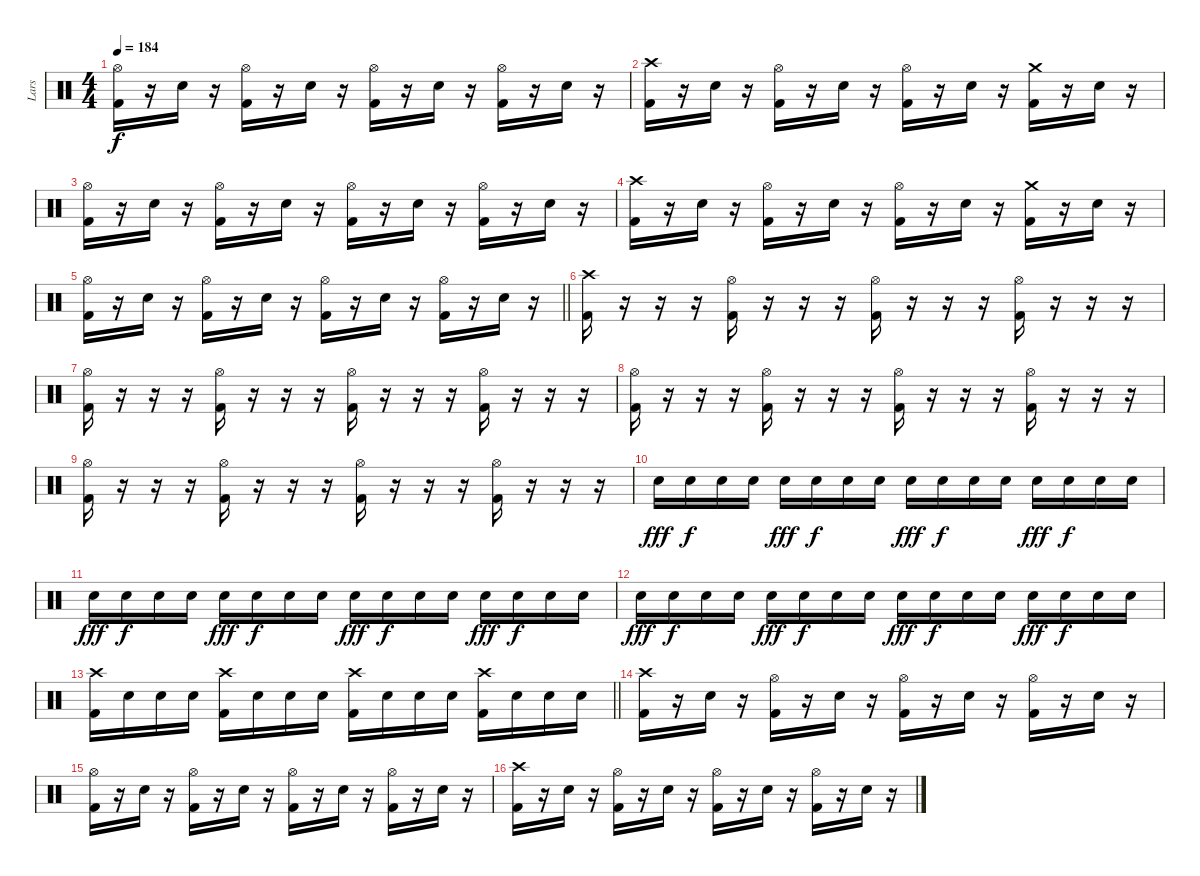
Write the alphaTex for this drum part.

\track ("Lars" "Lars") {instrument percussion}
\staff {score}
\articulation defaults
\ts (4 4)
\tempo 184
\clef neutral
\ks c
("Hi-Hat (open)" "Kick (hit) 2").16{dy f} r.16 "Electric Snare (hit)".16 r.16 ("Hi-Hat (open)" "Kick (hit) 2").16 r.16 "Electric Snare (hit)".16 r.16 ("Hi-Hat (open)" "Kick (hit) 2").16 r.16 "Electric Snare (hit)".16 r.16 ("Hi-Hat (open)" "Kick (hit) 2").16 r.16 "Electric Snare (hit)".16 r.16 |
("Crash high (hit)" "Kick (hit) 2").16 r.16 "Electric Snare (hit)".16 r.16 ("Hi-Hat (open)" "Kick (hit) 2").16 r.16 "Electric Snare (hit)".16 r.16 ("Hi-Hat (open)" "Kick (hit) 2").16 r.16 "Electric Snare (hit)".16 r.16 ("Crash medium (hit)" "Kick (hit) 2").16 r.16 "Electric Snare (hit)".16 r.16 |
("Hi-Hat (open)" "Kick (hit) 2").16 r.16 "Electric Snare (hit)".16 r.16 ("Hi-Hat (open)" "Kick (hit) 2").16 r.16 "Electric Snare (hit)".16 r.16 ("Hi-Hat (open)" "Kick (hit) 2").16 r.16 "Electric Snare (hit)".16 r.16 ("Hi-Hat (open)" "Kick (hit) 2").16 r.16 "Electric Snare (hit)".16 r.16 |
("Crash high (hit)" "Kick (hit) 2").16 r.16 "Electric Snare (hit)".16 r.16 ("Hi-Hat (open)" "Kick (hit) 2").16 r.16 "Electric Snare (hit)".16 r.16 ("Hi-Hat (open)" "Kick (hit) 2").16 r.16 "Electric Snare (hit)".16 r.16 ("Crash medium (hit)" "Kick (hit) 2").16 r.16 "Electric Snare (hit)".16 r.16 |
\barLineRight lightlight
("Hi-Hat (open)" "Kick (hit) 2").16 r.16 "Electric Snare (hit)".16 r.16 ("Hi-Hat (open)" "Kick (hit) 2").16 r.16 "Electric Snare (hit)".16 r.16 ("Hi-Hat (open)" "Kick (hit) 2").16 r.16 "Electric Snare (hit)".16 r.16 ("Hi-Hat (open)" "Kick (hit) 2").16 r.16 "Electric Snare (hit)".16 r.16 |
("Crash high (hit)" "Kick (hit) 2").16 r.16 r.16 r.16 ("Hi-Hat (open)" "Kick (hit) 2").16 r.16 r.16 r.16 ("Hi-Hat (open)" "Kick (hit) 2").16 r.16 r.16 r.16 ("Hi-Hat (open)" "Kick (hit) 2").16 r.16 r.16 r.16 |
("Hi-Hat (open)" "Kick (hit) 2").16 r.16 r.16 r.16 ("Hi-Hat (open)" "Kick (hit) 2").16 r.16 r.16 r.16 ("Hi-Hat (open)" "Kick (hit) 2").16 r.16 r.16 r.16 ("Hi-Hat (open)" "Kick (hit) 2").16 r.16 r.16 r.16 |
("Hi-Hat (open)" "Kick (hit) 2").16 r.16 r.16 r.16 ("Hi-Hat (open)" "Kick (hit) 2").16 r.16 r.16 r.16 ("Hi-Hat (open)" "Kick (hit) 2").16 r.16 r.16 r.16 ("Hi-Hat (open)" "Kick (hit) 2").16 r.16 r.16 r.16 |
("Hi-Hat (open)" "Kick (hit) 2").16 r.16 r.16 r.16 ("Hi-Hat (open)" "Kick (hit) 2").16 r.16 r.16 r.16 ("Hi-Hat (open)" "Kick (hit) 2").16 r.16 r.16 r.16 ("Hi-Hat (open)" "Kick (hit) 2").16 r.16 r.16 r.16 |
"Electric Snare (hit)".16{dy fff} "Electric Snare (hit)".16{dy f} "Electric Snare (hit)".16 "Electric Snare (hit)".16 "Electric Snare (hit)".16{dy fff} "Electric Snare (hit)".16{dy f} "Electric Snare (hit)".16 "Electric Snare (hit)".16 "Electric Snare (hit)".16{dy fff} "Electric Snare (hit)".16{dy f} "Electric Snare (hit)".16 "Electric Snare (hit)".16 "Electric Snare (hit)".16{dy fff} "Electric Snare (hit)".16{dy f} "Electric Snare (hit)".16 "Electric Snare (hit)".16 |
"Electric Snare (hit)".16{dy fff} "Electric Snare (hit)".16{dy f} "Electric Snare (hit)".16 "Electric Snare (hit)".16 "Electric Snare (hit)".16{dy fff} "Electric Snare (hit)".16{dy f} "Electric Snare (hit)".16 "Electric Snare (hit)".16 "Electric Snare (hit)".16{dy fff} "Electric Snare (hit)".16{dy f} "Electric Snare (hit)".16 "Electric Snare (hit)".16 "Electric Snare (hit)".16{dy fff} "Electric Snare (hit)".16{dy f} "Electric Snare (hit)".16 "Electric Snare (hit)".16 |
"Electric Snare (hit)".16{dy fff} "Electric Snare (hit)".16{dy f} "Electric Snare (hit)".16 "Electric Snare (hit)".16 "Electric Snare (hit)".16{dy fff} "Electric Snare (hit)".16{dy f} "Electric Snare (hit)".16 "Electric Snare (hit)".16 "Electric Snare (hit)".16{dy fff} "Electric Snare (hit)".16{dy f} "Electric Snare (hit)".16 "Electric Snare (hit)".16 "Electric Snare (hit)".16{dy fff} "Electric Snare (hit)".16{dy f} "Electric Snare (hit)".16 "Electric Snare (hit)".16 |
\barLineRight lightlight
("Crash high (hit)" "Kick (hit) 2").16 "Electric Snare (hit)".16 "Electric Snare (hit)".16 "Electric Snare (hit)".16 ("Crash high (hit)" "Kick (hit) 2").16 "Electric Snare (hit)".16 "Electric Snare (hit)".16 "Electric Snare (hit)".16 ("Crash high (hit)" "Kick (hit) 2").16 "Electric Snare (hit)".16 "Electric Snare (hit)".16 "Electric Snare (hit)".16 ("Crash high (hit)" "Kick (hit) 2").16 "Electric Snare (hit)".16 "Electric Snare (hit)".16 "Electric Snare (hit)".16 |
("Crash high (hit)" "Kick (hit) 2").16 r.16 "Electric Snare (hit)".16 r.16 ("Hi-Hat (open)" "Kick (hit) 2").16 r.16 "Electric Snare (hit)".16 r.16 ("Hi-Hat (open)" "Kick (hit) 2").16 r.16 "Electric Snare (hit)".16 r.16 ("Hi-Hat (open)" "Kick (hit) 2").16 r.16 "Electric Snare (hit)".16 r.16 |
("Hi-Hat (open)" "Kick (hit) 2").16 r.16 "Electric Snare (hit)".16 r.16 ("Hi-Hat (open)" "Kick (hit) 2").16 r.16 "Electric Snare (hit)".16 r.16 ("Hi-Hat (open)" "Kick (hit) 2").16 r.16 "Electric Snare (hit)".16 r.16 ("Hi-Hat (open)" "Kick (hit) 2").16 r.16 "Electric Snare (hit)".16 r.16 |
("Crash high (hit)" "Kick (hit) 2").16 r.16 "Electric Snare (hit)".16 r.16 ("Hi-Hat (open)" "Kick (hit) 2").16 r.16 "Electric Snare (hit)".16 r.16 ("Hi-Hat (open)" "Kick (hit) 2").16 r.16 "Electric Snare (hit)".16 r.16 ("Hi-Hat (open)" "Kick (hit) 2").16 r.16 "Electric Snare (hit)".16 r.16
